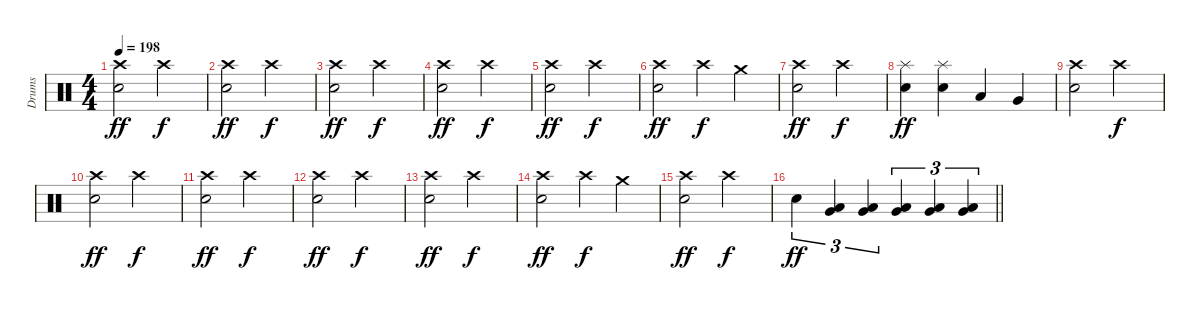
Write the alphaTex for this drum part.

\track ("Drums" "Drums") {instrument percussion}
\staff {score}
\articulation defaults
\ts (4 4)
\section ("" "")
\tempo 198
\clef neutral
\ks c
("Crash high (hit)" "Snare (hit) 2").2{dy ff} "Crash high (hit)".2{dy f} |
("Crash high (hit)" "Snare (hit) 2").2{dy ff} "Crash high (hit)".2{dy f} |
("Crash high (hit)" "Snare (hit) 2").2{dy ff} "Crash high (hit)".2{dy f} |
("Crash high (hit)" "Snare (hit) 2").2{dy ff} "Crash high (hit)".2{dy f} |
("Crash high (hit)" "Snare (hit) 2").2{dy ff} "Crash high (hit)".2{dy f} |
("Crash high (hit)" "Snare (hit) 2").2{dy ff} "Crash high (hit)".4{dy f} "Crash medium (hit)".4 |
("Crash high (hit)" "Snare (hit) 2").2{dy ff} "Crash high (hit)".2{dy f} |
("Splash (hit)" "Snare (hit) 2").4{dy ff} ("Splash (hit)" "Snare (hit) 2").4 "Low Tom (hit)".4 "Very Low Tom (hit)".4 |
("Crash high (hit)" "Snare (hit) 2").2 "Crash high (hit)".2{dy f} |
("Crash high (hit)" "Snare (hit) 2").2{dy ff} "Crash high (hit)".2{dy f} |
("Crash high (hit)" "Snare (hit) 2").2{dy ff} "Crash high (hit)".2{dy f} |
("Crash high (hit)" "Snare (hit) 2").2{dy ff} "Crash high (hit)".2{dy f} |
("Crash high (hit)" "Snare (hit) 2").2{dy ff} "Crash high (hit)".2{dy f} |
("Crash high (hit)" "Snare (hit) 2").2{dy ff} "Crash high (hit)".4{dy f} "Crash medium (hit)".4 |
("Crash high (hit)" "Snare (hit) 2").2{dy ff} "Crash high (hit)".2{dy f} |
\barLineRight lightlight "Snare (hit) 2".4{tu (3 2) dy ff}
("Low Tom (hit)" "Very Low Tom (hit)").4{tu (3 2)} ("Low Tom (hit)" "Very Low Tom (hit)").4{tu (3 2)} ("Very Low Tom (hit)" "Low Floor Tom (hit)").4{tu (3 2)} ("Very Low Tom (hit)" "Low Floor Tom (hit)").4{tu (3 2)} ("Very Low Tom (hit)" "Low Floor Tom (hit)").4{tu (3 2)}
